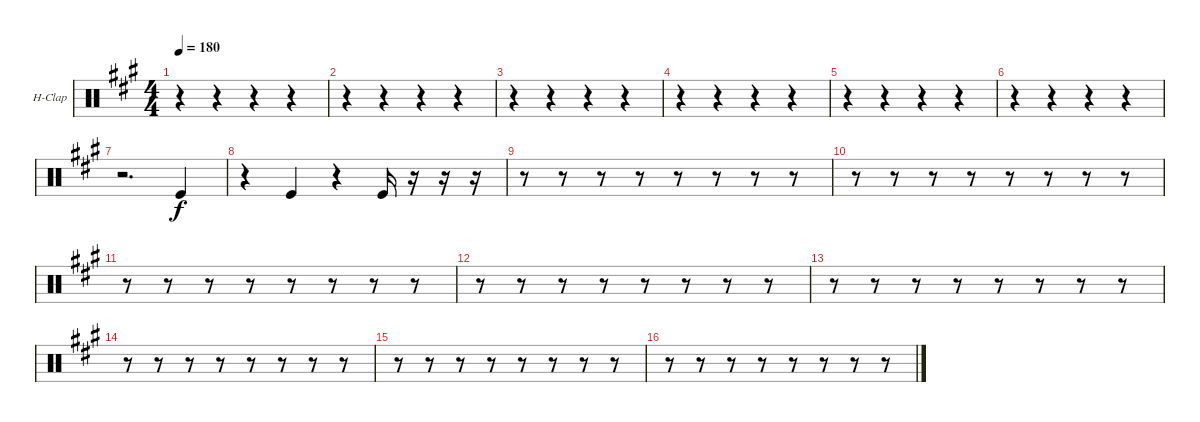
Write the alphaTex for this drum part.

\bracketExtendMode groupsimilarinstruments
\firstSystemTrackNameOrientation horizontal
\otherSystemsTrackNameOrientation horizontal
\track ("Hand Clap" "H-Clap") {instrument percussion}
\staff {score}
\articulation defaults
\ts (4 4)
\tempo 180
\clef neutral
\ks a
r.4{dy f} r.4 r.4 r.4 |
r.4 r.4 r.4 r.4 |
r.4 r.4 r.4 r.4 |
r.4 r.4 r.4 r.4 |
r.4 r.4 r.4 r.4 |
r.4 r.4 r.4 r.4 |
r.2{d} "Kick (hit)".4 |
r.4 "Kick (hit)".4 r.4 "Kick (hit)".16 r.16 r.16 r.16 |
r.8 r.8 r.8 r.8 r.8 r.8 r.8 r.8 |
r.8 r.8 r.8 r.8 r.8 r.8 r.8 r.8 |
r.8 r.8 r.8 r.8 r.8 r.8 r.8 r.8 |
r.8 r.8 r.8 r.8 r.8 r.8 r.8 r.8 |
r.8 r.8 r.8 r.8 r.8 r.8 r.8 r.8 |
r.8 r.8 r.8 r.8 r.8 r.8 r.8 r.8 |
r.8 r.8 r.8 r.8 r.8 r.8 r.8 r.8 |
r.8 r.8 r.8 r.8 r.8 r.8 r.8 r.8
